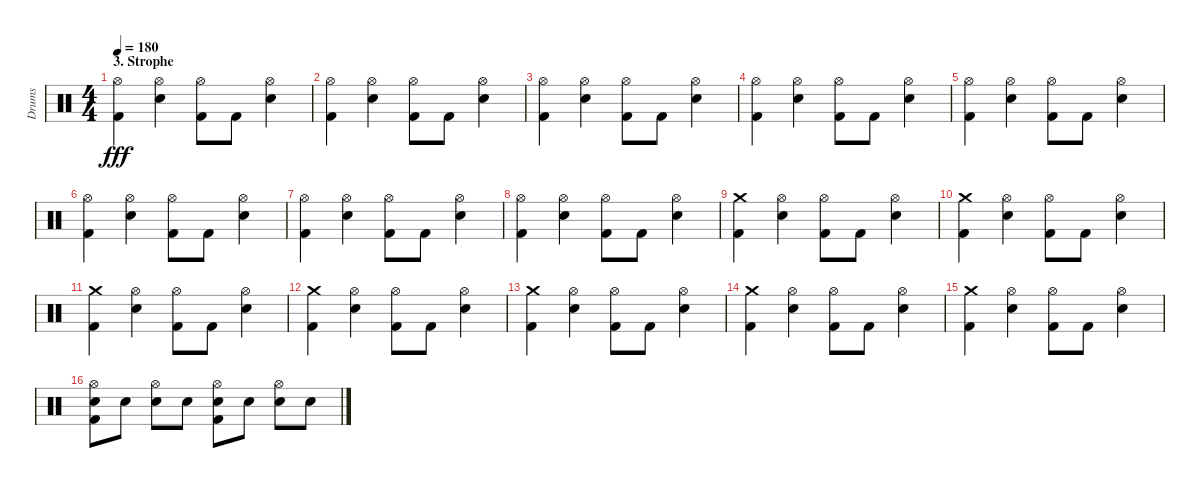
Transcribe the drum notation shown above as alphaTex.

\track ("Drums" "Drums") {instrument percussion}
\staff {score}
\articulation defaults
\ts (4 4)
\section ("" "3. Strophe")
\tempo 180
\clef neutral
\ks c
("Hi-Hat (open)" "Kick (hit) 2").4{dy fff} ("Hi-Hat (open)" "Electric Snare (hit)").4 ("Hi-Hat (open)" "Kick (hit) 2").8 "Kick (hit) 2".8 ("Hi-Hat (open)" "Electric Snare (hit)").4 |
("Hi-Hat (open)" "Kick (hit) 2").4 ("Hi-Hat (open)" "Electric Snare (hit)").4 ("Hi-Hat (open)" "Kick (hit) 2").8 "Kick (hit) 2".8 ("Hi-Hat (open)" "Electric Snare (hit)").4 |
("Hi-Hat (open)" "Kick (hit) 2").4 ("Hi-Hat (open)" "Electric Snare (hit)").4 ("Hi-Hat (open)" "Kick (hit) 2").8 "Kick (hit) 2".8 ("Hi-Hat (open)" "Electric Snare (hit)").4 |
("Hi-Hat (open)" "Kick (hit) 2").4 ("Hi-Hat (open)" "Electric Snare (hit)").4 ("Hi-Hat (open)" "Kick (hit) 2").8 "Kick (hit) 2".8 ("Hi-Hat (open)" "Electric Snare (hit)").4 |
("Hi-Hat (open)" "Kick (hit) 2").4 ("Hi-Hat (open)" "Electric Snare (hit)").4 ("Hi-Hat (open)" "Kick (hit) 2").8 "Kick (hit) 2".8 ("Hi-Hat (open)" "Electric Snare (hit)").4 |
("Hi-Hat (open)" "Kick (hit) 2").4 ("Hi-Hat (open)" "Electric Snare (hit)").4 ("Hi-Hat (open)" "Kick (hit) 2").8 "Kick (hit) 2".8 ("Hi-Hat (open)" "Electric Snare (hit)").4 |
("Hi-Hat (open)" "Kick (hit) 2").4 ("Hi-Hat (open)" "Electric Snare (hit)").4 ("Hi-Hat (open)" "Kick (hit) 2").8 "Kick (hit) 2".8 ("Hi-Hat (open)" "Electric Snare (hit)").4 |
("Hi-Hat (open)" "Kick (hit) 2").4 ("Hi-Hat (open)" "Electric Snare (hit)").4 ("Hi-Hat (open)" "Kick (hit) 2").8 "Kick (hit) 2".8 ("Hi-Hat (open)" "Electric Snare (hit)").4 |
("Crash medium (hit)" "Kick (hit) 2").4 ("Hi-Hat (open)" "Electric Snare (hit)").4 ("Hi-Hat (open)" "Kick (hit) 2").8 "Kick (hit) 2".8 ("Hi-Hat (open)" "Electric Snare (hit)").4 |
("Crash medium (hit)" "Kick (hit) 2").4 ("Hi-Hat (open)" "Electric Snare (hit)").4 ("Hi-Hat (open)" "Kick (hit) 2").8 "Kick (hit) 2".8 ("Hi-Hat (open)" "Electric Snare (hit)").4 |
("Crash medium (hit)" "Kick (hit) 2").4 ("Hi-Hat (open)" "Electric Snare (hit)").4 ("Hi-Hat (open)" "Kick (hit) 2").8 "Kick (hit) 2".8 ("Hi-Hat (open)" "Electric Snare (hit)").4 |
("Crash medium (hit)" "Kick (hit) 2").4 ("Hi-Hat (open)" "Electric Snare (hit)").4 ("Hi-Hat (open)" "Kick (hit) 2").8 "Kick (hit) 2".8 ("Hi-Hat (open)" "Electric Snare (hit)").4 |
("Crash medium (hit)" "Kick (hit) 2").4 ("Hi-Hat (open)" "Electric Snare (hit)").4 ("Hi-Hat (open)" "Kick (hit) 2").8 "Kick (hit) 2".8 ("Hi-Hat (open)" "Electric Snare (hit)").4 |
("Crash medium (hit)" "Kick (hit) 2").4 ("Hi-Hat (open)" "Electric Snare (hit)").4 ("Hi-Hat (open)" "Kick (hit) 2").8 "Kick (hit) 2".8 ("Hi-Hat (open)" "Electric Snare (hit)").4 |
("Crash medium (hit)" "Kick (hit) 2").4 ("Hi-Hat (open)" "Electric Snare (hit)").4 ("Hi-Hat (open)" "Kick (hit) 2").8 "Kick (hit) 2".8 ("Hi-Hat (open)" "Electric Snare (hit)").4 |
("Hi-Hat (open)" "Kick (hit) 2" "Electric Snare (hit)").8 "Electric Snare (hit)".8 ("Hi-Hat (open)" "Electric Snare (hit)").8 "Electric Snare (hit)".8 ("Hi-Hat (open)" "Kick (hit) 2" "Electric Snare (hit)").8 "Electric Snare (hit)".8 ("Hi-Hat (open)" "Electric Snare (hit)").8 "Electric Snare (hit)".8
